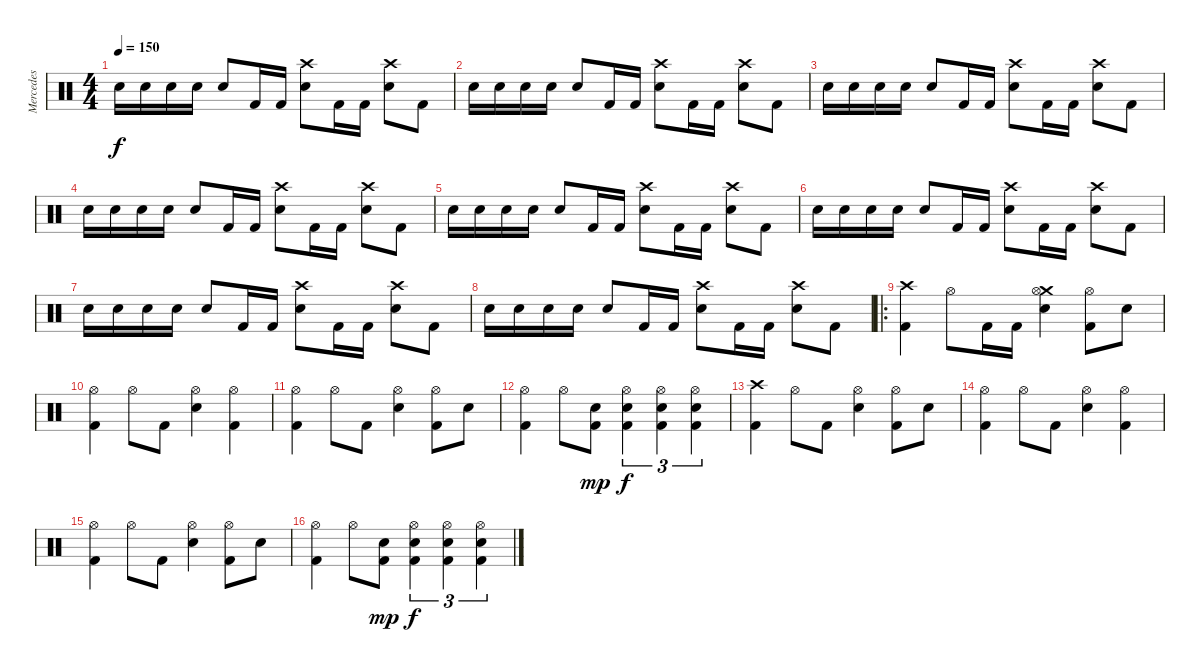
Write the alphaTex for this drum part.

\track ("Mercedes" "Mercedes") {instrument percussion}
\staff {score}
\articulation defaults
\ts (4 4)
\tempo 150
\clef neutral
\ks c "Electric Snare (hit)".16{dy f} "Electric Snare (hit)".16 "Electric Snare (hit)".16 "Electric Snare (hit)".16 "Electric Snare (hit)".8 "Kick (hit) 2".16 "Kick (hit) 2".16
("Crash high (hit)" "Electric Snare (hit)").8 "Kick (hit) 2".16 "Kick (hit) 2".16 ("Crash high (hit)" "Electric Snare (hit)").8 "Kick (hit) 2".8 |
"Electric Snare (hit)".16 "Electric Snare (hit)".16 "Electric Snare (hit)".16 "Electric Snare (hit)".16 "Electric Snare (hit)".8 "Kick (hit) 2".16 "Kick (hit) 2".16 ("Crash high (hit)" "Electric Snare (hit)").8 "Kick (hit) 2".16 "Kick (hit) 2".16 ("Crash high (hit)" "Electric Snare (hit)").8 "Kick (hit) 2".8 |
"Electric Snare (hit)".16 "Electric Snare (hit)".16 "Electric Snare (hit)".16 "Electric Snare (hit)".16 "Electric Snare (hit)".8 "Kick (hit) 2".16 "Kick (hit) 2".16 ("Crash high (hit)" "Electric Snare (hit)").8 "Kick (hit) 2".16 "Kick (hit) 2".16 ("Crash high (hit)" "Electric Snare (hit)").8 "Kick (hit) 2".8 |
"Electric Snare (hit)".16 "Electric Snare (hit)".16 "Electric Snare (hit)".16 "Electric Snare (hit)".16 "Electric Snare (hit)".8 "Kick (hit) 2".16 "Kick (hit) 2".16 ("Crash high (hit)" "Electric Snare (hit)").8 "Kick (hit) 2".16 "Kick (hit) 2".16 ("Crash high (hit)" "Electric Snare (hit)").8 "Kick (hit) 2".8 |
"Electric Snare (hit)".16 "Electric Snare (hit)".16 "Electric Snare (hit)".16 "Electric Snare (hit)".16 "Electric Snare (hit)".8 "Kick (hit) 2".16 "Kick (hit) 2".16 ("Crash high (hit)" "Electric Snare (hit)").8 "Kick (hit) 2".16 "Kick (hit) 2".16 ("Crash high (hit)" "Electric Snare (hit)").8 "Kick (hit) 2".8 |
"Electric Snare (hit)".16 "Electric Snare (hit)".16 "Electric Snare (hit)".16 "Electric Snare (hit)".16 "Electric Snare (hit)".8 "Kick (hit) 2".16 "Kick (hit) 2".16 ("Crash high (hit)" "Electric Snare (hit)").8 "Kick (hit) 2".16 "Kick (hit) 2".16 ("Crash high (hit)" "Electric Snare (hit)").8 "Kick (hit) 2".8 |
"Electric Snare (hit)".16 "Electric Snare (hit)".16 "Electric Snare (hit)".16 "Electric Snare (hit)".16 "Electric Snare (hit)".8 "Kick (hit) 2".16 "Kick (hit) 2".16 ("Crash high (hit)" "Electric Snare (hit)").8 "Kick (hit) 2".16 "Kick (hit) 2".16 ("Crash high (hit)" "Electric Snare (hit)").8 "Kick (hit) 2".8 |
"Electric Snare (hit)".16 "Electric Snare (hit)".16 "Electric Snare (hit)".16 "Electric Snare (hit)".16 "Electric Snare (hit)".8 "Kick (hit) 2".16 "Kick (hit) 2".16 ("Crash high (hit)" "Electric Snare (hit)").8 "Kick (hit) 2".16 "Kick (hit) 2".16 ("Crash high (hit)" "Electric Snare (hit)").8 "Kick (hit) 2".8 |
\ro
("Crash high (hit)" "Kick (hit) 2").4 "Hi-Hat (open)".8 "Kick (hit) 2".16 "Kick (hit) 2".16 ("Crash medium (hit)" "Hi-Hat (open)" "Electric Snare (hit)").4 ("Hi-Hat (open)" "Kick (hit) 2").8 "Electric Snare (hit)".8 |
("Hi-Hat (open)" "Kick (hit) 2").4 "Hi-Hat (open)".8 "Kick (hit) 2".8 ("Hi-Hat (open)" "Electric Snare (hit)").4 ("Hi-Hat (open)" "Kick (hit) 2").4 |
("Hi-Hat (open)" "Kick (hit) 2").4 "Hi-Hat (open)".8 "Kick (hit) 2".8 ("Hi-Hat (open)" "Electric Snare (hit)").4 ("Hi-Hat (open)" "Kick (hit) 2").8 "Electric Snare (hit)".8 |
("Hi-Hat (open)" "Kick (hit) 2").4 "Hi-Hat (open)".8 ("Electric Snare (hit)" "Kick (hit) 2").8{dy mp} ("Hi-Hat (open)" "Electric Snare (hit)" "Kick (hit) 2").4{tu (3 2) dy f} ("Hi-Hat (open)" "Electric Snare (hit)" "Kick (hit) 2").4{tu (3 2)} ("Hi-Hat (open)" "Electric Snare (hit)" "Kick (hit) 2").4{tu (3 2)} |
("Crash high (hit)" "Kick (hit) 2").4 "Hi-Hat (open)".8 "Kick (hit) 2".8 ("Hi-Hat (open)" "Electric Snare (hit)").4 ("Hi-Hat (open)" "Kick (hit) 2").8 "Electric Snare (hit)".8 |
("Hi-Hat (open)" "Kick (hit) 2").4 "Hi-Hat (open)".8 "Kick (hit) 2".8 ("Hi-Hat (open)" "Electric Snare (hit)").4 ("Hi-Hat (open)" "Kick (hit) 2").4 |
("Hi-Hat (open)" "Kick (hit) 2").4 "Hi-Hat (open)".8 "Kick (hit) 2".8 ("Hi-Hat (open)" "Electric Snare (hit)").4 ("Hi-Hat (open)" "Kick (hit) 2").8 "Electric Snare (hit)".8 |
("Hi-Hat (open)" "Kick (hit) 2").4 "Hi-Hat (open)".8 ("Electric Snare (hit)" "Kick (hit) 2").8{dy mp} ("Hi-Hat (open)" "Electric Snare (hit)" "Kick (hit) 2").4{tu (3 2) dy f} ("Hi-Hat (open)" "Electric Snare (hit)" "Kick (hit) 2").4{tu (3 2)} ("Hi-Hat (open)" "Electric Snare (hit)" "Kick (hit) 2").4{tu (3 2)}
